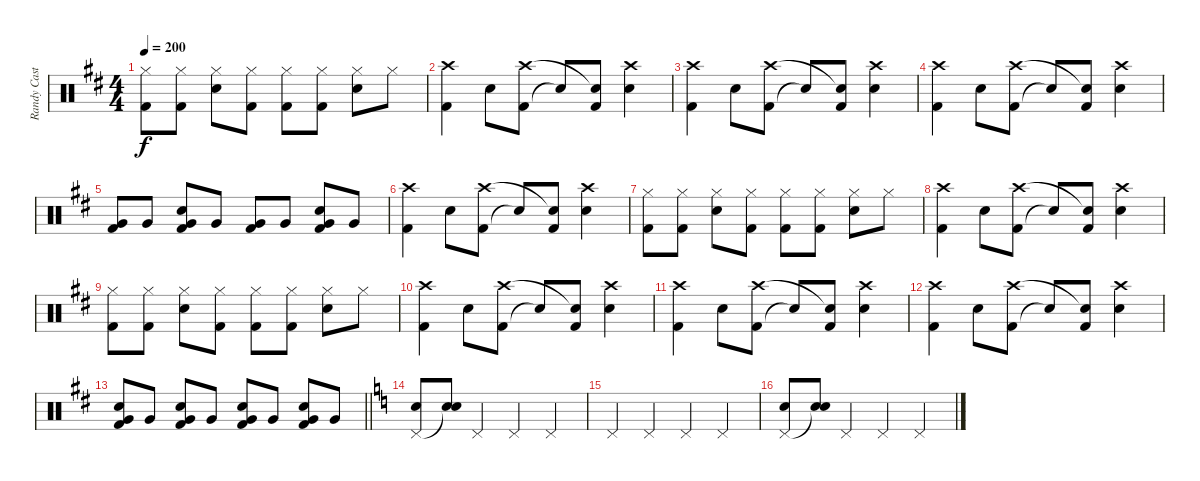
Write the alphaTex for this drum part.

\track ("Randy Castillo" "Randy Cast") {instrument percussion}
\staff {score}
\articulation defaults
\ts (4 4)
\tempo 200
\clef neutral
\ks d
("Hi-Hat (closed)" "Kick (hit) 2").8{dy f} ("Hi-Hat (closed)" "Kick (hit) 2").8 ("Hi-Hat (closed)" "Snare (hit) 2").8 ("Hi-Hat (closed)" "Kick (hit) 2").8 ("Hi-Hat (closed)" "Kick (hit) 2").8 ("Hi-Hat (closed)" "Kick (hit) 2").8 ("Hi-Hat (closed)" "Snare (hit) 2").8 "Hi-Hat (closed)".8 |
("Kick (hit) 2" "Crash high (hit)").4 "Snare (hit) 2".8 ("Kick (hit) 2" "Crash high (hit)").8 "Snare (hit)"{t}.8 ("Kick (hit) 2" "Snare (hit)"{t}).8 ("Snare (hit) 2" "Crash high (hit)").4 |
("Kick (hit) 2" "Crash high (hit)").4 "Snare (hit) 2".8 ("Kick (hit) 2" "Crash high (hit)").8 "Snare (hit)"{t}.8 ("Kick (hit) 2" "Snare (hit)"{t}).8 ("Snare (hit) 2" "Crash high (hit)").4 |
("Kick (hit) 2" "Crash high (hit)").4 "Snare (hit) 2".8 ("Kick (hit) 2" "Crash high (hit)").8 "Snare (hit)"{t}.8 ("Kick (hit) 2" "Snare (hit)"{t}).8 ("Snare (hit) 2" "Crash high (hit)").4 |
("Kick (hit) 2" "Very Low Tom (hit)").8 "Very Low Tom (hit)".8 ("Snare (hit) 2" "Kick (hit) 2" "Very Low Tom (hit)").8 "Very Low Tom (hit)".8 ("Kick (hit) 2" "Very Low Tom (hit)").8 "Very Low Tom (hit)".8 ("Snare (hit) 2" "Kick (hit) 2" "Very Low Tom (hit)").8 "Very Low Tom (hit)".8 |
("Kick (hit) 2" "Crash high (hit)").4 "Snare (hit) 2".8 ("Kick (hit) 2" "Crash high (hit)").8 "Snare (hit)"{t}.8 ("Kick (hit) 2" "Snare (hit)"{t}).8 ("Snare (hit) 2" "Crash high (hit)").4 |
("Hi-Hat (closed)" "Kick (hit) 2").8 ("Hi-Hat (closed)" "Kick (hit) 2").8 ("Hi-Hat (closed)" "Snare (hit) 2").8 ("Hi-Hat (closed)" "Kick (hit) 2").8 ("Hi-Hat (closed)" "Kick (hit) 2").8 ("Hi-Hat (closed)" "Kick (hit) 2").8 ("Hi-Hat (closed)" "Snare (hit) 2").8 "Hi-Hat (closed)".8 |
("Kick (hit) 2" "Crash high (hit)").4 "Snare (hit) 2".8 ("Kick (hit) 2" "Crash high (hit)").8 "Snare (hit)"{t}.8 ("Kick (hit) 2" "Snare (hit)"{t}).8 ("Snare (hit) 2" "Crash high (hit)").4 |
("Hi-Hat (closed)" "Kick (hit) 2").8 ("Hi-Hat (closed)" "Kick (hit) 2").8 ("Hi-Hat (closed)" "Snare (hit) 2").8 ("Hi-Hat (closed)" "Kick (hit) 2").8 ("Hi-Hat (closed)" "Kick (hit) 2").8 ("Hi-Hat (closed)" "Kick (hit) 2").8 ("Hi-Hat (closed)" "Snare (hit) 2").8 "Hi-Hat (closed)".8 |
("Kick (hit) 2" "Crash high (hit)").4 "Snare (hit) 2".8 ("Kick (hit) 2" "Crash high (hit)").8 "Snare (hit)"{t}.8 ("Kick (hit) 2" "Snare (hit)"{t}).8 ("Snare (hit) 2" "Crash high (hit)").4 |
("Kick (hit) 2" "Crash high (hit)").4 "Snare (hit) 2".8 ("Kick (hit) 2" "Crash high (hit)").8 "Snare (hit)"{t}.8 ("Kick (hit) 2" "Snare (hit)"{t}).8 ("Snare (hit) 2" "Crash high (hit)").4 |
("Kick (hit) 2" "Crash high (hit)").4 "Snare (hit) 2".8 ("Kick (hit) 2" "Crash high (hit)").8 "Snare (hit)"{t}.8 ("Kick (hit) 2" "Snare (hit)"{t}).8 ("Snare (hit) 2" "Crash high (hit)").4 |
\barLineRight lightlight
("Snare (hit) 2" "Kick (hit) 2" "Very Low Tom (hit)").8 "Very Low Tom (hit)".8 ("Snare (hit) 2" "Kick (hit) 2" "Very Low Tom (hit)").8 "Very Low Tom (hit)".8 ("Snare (hit) 2" "Kick (hit) 2" "Very Low Tom (hit)").8 "Very Low Tom (hit)".8 ("Snare (hit) 2" "Kick (hit) 2" "Very Low Tom (hit)").8 "Very Low Tom (hit)".8 |
\ks c
("Pedal Hi-Hat (hit)" "Snare (hit) 2").8 ("Snare (hit)"{t} "Snare (hit) 2").8 "Pedal Hi-Hat (hit)".4 "Pedal Hi-Hat (hit)".4 "Pedal Hi-Hat (hit)".4 |
"Pedal Hi-Hat (hit)".4 "Pedal Hi-Hat (hit)".4 "Pedal Hi-Hat (hit)".4 "Pedal Hi-Hat (hit)".4 |
("Pedal Hi-Hat (hit)" "Snare (hit) 2").8 ("Snare (hit)"{t} "Snare (hit) 2").8 "Pedal Hi-Hat (hit)".4 "Pedal Hi-Hat (hit)".4 "Pedal Hi-Hat (hit)".4
